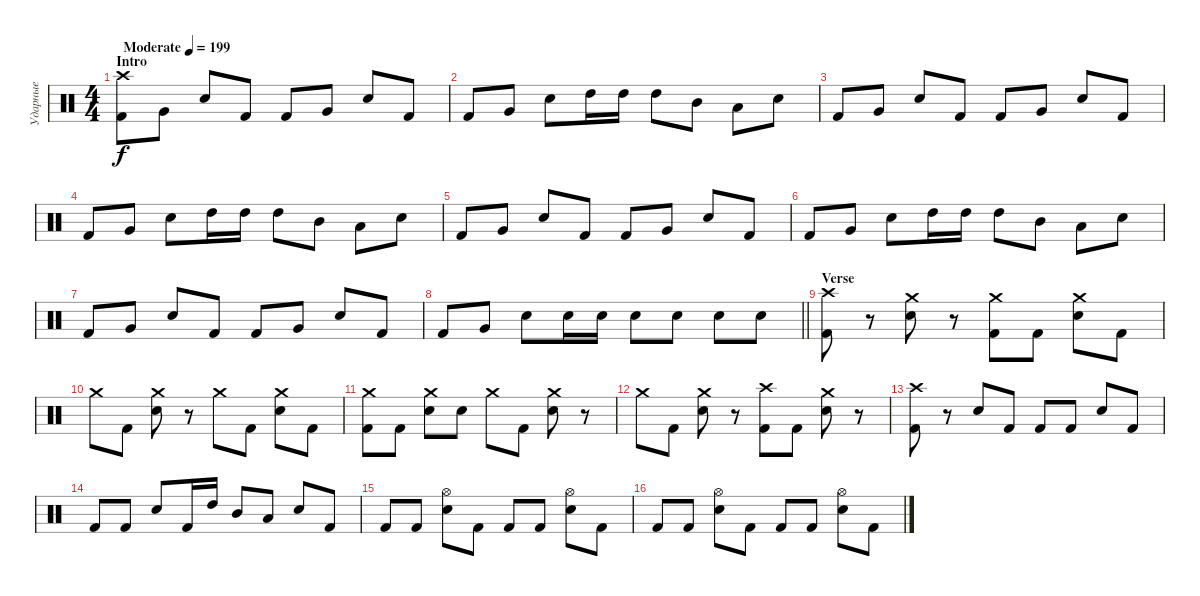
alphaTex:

\track ("Ударные" "Ударные") {instrument percussion}
\staff {score}
\articulation defaults
\ts (4 4)
\section ("" "Intro")
\tempo (199 "Moderate")
\clef neutral
\ks c
("Crash high (hit)" "Kick (hit) 2").8{dy f} "Very Low Tom (hit)".8 "Electric Snare (hit)".8 "Kick (hit) 2".8 "Kick (hit) 2".8 "Very Low Tom (hit)".8 "Electric Snare (hit)".8 "Kick (hit) 2".8 |
"Kick (hit) 2".8 "Very Low Tom (hit)".8 "Electric Snare (hit)".8 "High Tom (hit)".16 "High Tom (hit)".16 "High Tom (hit)".8 "Mid Tom (hit)".8 "Low Tom (hit)".8 "Electric Snare (hit)".8 |
"Kick (hit) 2".8 "Very Low Tom (hit)".8 "Electric Snare (hit)".8 "Kick (hit) 2".8 "Kick (hit) 2".8 "Very Low Tom (hit)".8 "Electric Snare (hit)".8 "Kick (hit) 2".8 |
"Kick (hit) 2".8 "Very Low Tom (hit)".8 "Electric Snare (hit)".8 "High Tom (hit)".16 "High Tom (hit)".16 "High Tom (hit)".8 "Mid Tom (hit)".8 "Low Tom (hit)".8 "Electric Snare (hit)".8 |
"Kick (hit) 2".8 "Very Low Tom (hit)".8 "Electric Snare (hit)".8 "Kick (hit) 2".8 "Kick (hit) 2".8 "Very Low Tom (hit)".8 "Electric Snare (hit)".8 "Kick (hit) 2".8 |
"Kick (hit) 2".8 "Very Low Tom (hit)".8 "Electric Snare (hit)".8 "High Tom (hit)".16 "High Tom (hit)".16 "High Tom (hit)".8 "Mid Tom (hit)".8 "Low Tom (hit)".8 "Electric Snare (hit)".8 |
"Kick (hit) 2".8 "Very Low Tom (hit)".8 "Electric Snare (hit)".8 "Kick (hit) 2".8 "Kick (hit) 2".8 "Very Low Tom (hit)".8 "Electric Snare (hit)".8 "Kick (hit) 2".8 |
\barLineRight lightlight "Kick (hit) 2".8 "Very Low Tom (hit)".8 "Electric Snare (hit)".8 "Electric Snare (hit)".16 "Electric Snare (hit)".16 "Electric Snare (hit)".8 "Electric Snare (hit)".8 "Electric Snare (hit)".8 "Electric Snare (hit)".8
|
\section ("" "Verse")
("Crash high (hit)" "Kick (hit) 2").8 r.8 ("Crash medium (hit)" "Electric Snare (hit)").8 r.8 ("Crash medium (hit)" "Kick (hit) 2").8 "Kick (hit) 2".8 ("Crash medium (hit)" "Electric Snare (hit)").8 "Kick (hit) 2".8 |
"Crash medium (hit)".8 "Kick (hit) 2".8 ("Crash medium (hit)" "Electric Snare (hit)").8 r.8 "Crash medium (hit)".8 "Kick (hit) 2".8 ("Crash medium (hit)" "Electric Snare (hit)").8 "Kick (hit) 2".8 |
("Crash medium (hit)" "Kick (hit) 2").8 "Kick (hit) 2".8 ("Crash medium (hit)" "Electric Snare (hit)").8 "Electric Snare (hit)".8 "Crash medium (hit)".8 "Kick (hit) 2".8 ("Crash medium (hit)" "Electric Snare (hit)").8 r.8 |
"Crash medium (hit)".8 "Kick (hit) 2".8 ("Crash medium (hit)" "Electric Snare (hit)").8 r.8 ("Crash high (hit)" "Kick (hit) 2").8 "Kick (hit) 2".8 ("Crash medium (hit)" "Electric Snare (hit)").8 r.8 |
("Crash high (hit)" "Kick (hit) 2").8 r.8 "Electric Snare (hit)".8 "Kick (hit) 2".8 "Kick (hit) 2".8 "Kick (hit) 2".8 "Electric Snare (hit)".8 "Kick (hit) 2".8 |
"Kick (hit) 2".8 "Kick (hit) 2".8 "Electric Snare (hit)".8 "Kick (hit) 2".16 "High Tom (hit)".16 "Mid Tom (hit)".8 "Low Tom (hit)".8 "Electric Snare (hit)".8 "Kick (hit) 2".8 |
"Kick (hit) 2".8 "Kick (hit) 2".8 ("Hi-Hat (open)" "Electric Snare (hit)").8 "Kick (hit) 2".8 "Kick (hit) 2".8 "Kick (hit) 2".8 ("Hi-Hat (open)" "Electric Snare (hit)").8 "Kick (hit) 2".8 |
"Kick (hit) 2".8 "Kick (hit) 2".8 ("Hi-Hat (open)" "Electric Snare (hit)").8 "Kick (hit) 2".8 "Kick (hit) 2".8 "Kick (hit) 2".8 ("Hi-Hat (open)" "Electric Snare (hit)").8 "Kick (hit) 2".8
